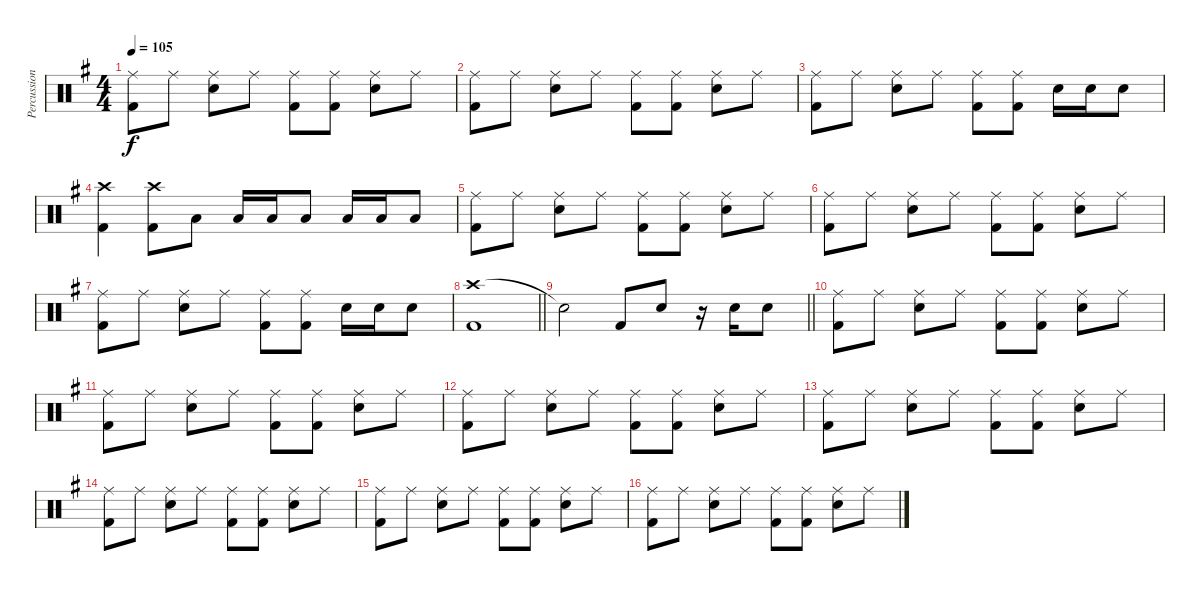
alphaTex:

\track ("Percussion" "Percussion") {instrument percussion}
\staff {score}
\articulation defaults
\ts (4 4)
\tempo 105
\clef neutral
\ks g
("Ride (middle)" "Kick (hit) 2").8{dy f} "Ride (middle)".8 ("Ride (middle)" "Snare (hit) 2").8 "Ride (middle)".8 ("Ride (middle)" "Kick (hit) 2").8 ("Ride (middle)" "Kick (hit) 2").8 ("Ride (middle)" "Snare (hit) 2").8 "Ride (middle)".8 |
("Ride (middle)" "Kick (hit) 2").8 "Ride (middle)".8 ("Ride (middle)" "Snare (hit) 2").8 "Ride (middle)".8 ("Ride (middle)" "Kick (hit) 2").8 ("Ride (middle)" "Kick (hit) 2").8 ("Ride (middle)" "Snare (hit) 2").8 "Ride (middle)".8 |
("Ride (middle)" "Kick (hit) 2").8 "Ride (middle)".8 ("Ride (middle)" "Snare (hit) 2").8 "Ride (middle)".8 ("Ride (middle)" "Kick (hit) 2").8 ("Ride (middle)" "Kick (hit) 2").8 "Snare (hit) 2".16 "Snare (hit) 2".16 "Snare (hit) 2".8 |
("Crash high (hit)" "Kick (hit) 2").4 ("Crash high (hit)" "Kick (hit) 2").8 "Low Floor Tom (hit)".8 "Low Floor Tom (hit)".16 "Low Floor Tom (hit)".16 "Low Floor Tom (hit)".8 "Low Floor Tom (hit)".16 "Low Floor Tom (hit)".16 "Low Floor Tom (hit)".8 |
("Ride (middle)" "Kick (hit) 2").8 "Ride (middle)".8 ("Ride (middle)" "Snare (hit) 2").8 "Ride (middle)".8 ("Ride (middle)" "Kick (hit) 2").8 ("Ride (middle)" "Kick (hit) 2").8 ("Ride (middle)" "Snare (hit) 2").8 "Ride (middle)".8 |
("Ride (middle)" "Kick (hit) 2").8 "Ride (middle)".8 ("Ride (middle)" "Snare (hit) 2").8 "Ride (middle)".8 ("Ride (middle)" "Kick (hit) 2").8 ("Ride (middle)" "Kick (hit) 2").8 ("Ride (middle)" "Snare (hit) 2").8 "Ride (middle)".8 |
("Ride (middle)" "Kick (hit) 2").8 "Ride (middle)".8 ("Ride (middle)" "Snare (hit) 2").8 "Ride (middle)".8 ("Ride (middle)" "Kick (hit) 2").8 ("Ride (middle)" "Kick (hit) 2").8 "Snare (hit) 2".16 "Snare (hit) 2".16 "Snare (hit) 2".8 |
\barLineRight lightlight
("Crash high (hit)" "Kick (hit) 2").1 |
\barLineRight lightlight "Snare (hit)"{t}.2 "Kick (hit) 2".8 "Snare (hit) 2".8
r.16 "Snare (hit) 2".16 "Snare (hit) 2".8 |
("Ride (middle)" "Kick (hit) 2").8 "Ride (middle)".8 ("Ride (middle)" "Snare (hit) 2").8 "Ride (middle)".8 ("Ride (middle)" "Kick (hit) 2").8 ("Ride (middle)" "Kick (hit) 2").8 ("Ride (middle)" "Snare (hit) 2").8 "Ride (middle)".8 |
("Ride (middle)" "Kick (hit) 2").8 "Ride (middle)".8 ("Ride (middle)" "Snare (hit) 2").8 "Ride (middle)".8 ("Ride (middle)" "Kick (hit) 2").8 ("Ride (middle)" "Kick (hit) 2").8 ("Ride (middle)" "Snare (hit) 2").8 "Ride (middle)".8 |
("Ride (middle)" "Kick (hit) 2").8 "Ride (middle)".8 ("Ride (middle)" "Snare (hit) 2").8 "Ride (middle)".8 ("Ride (middle)" "Kick (hit) 2").8 ("Ride (middle)" "Kick (hit) 2").8 ("Ride (middle)" "Snare (hit) 2").8 "Ride (middle)".8 |
("Ride (middle)" "Kick (hit) 2").8 "Ride (middle)".8 ("Ride (middle)" "Snare (hit) 2").8 "Ride (middle)".8 ("Ride (middle)" "Kick (hit) 2").8 ("Ride (middle)" "Kick (hit) 2").8 ("Ride (middle)" "Snare (hit) 2").8 "Ride (middle)".8 |
("Ride (middle)" "Kick (hit) 2").8 "Ride (middle)".8 ("Ride (middle)" "Snare (hit) 2").8 "Ride (middle)".8 ("Ride (middle)" "Kick (hit) 2").8 ("Ride (middle)" "Kick (hit) 2").8 ("Ride (middle)" "Snare (hit) 2").8 "Ride (middle)".8 |
("Ride (middle)" "Kick (hit) 2").8 "Ride (middle)".8 ("Ride (middle)" "Snare (hit) 2").8 "Ride (middle)".8 ("Ride (middle)" "Kick (hit) 2").8 ("Ride (middle)" "Kick (hit) 2").8 ("Ride (middle)" "Snare (hit) 2").8 "Ride (middle)".8 |
("Ride (middle)" "Kick (hit) 2").8 "Ride (middle)".8 ("Ride (middle)" "Snare (hit) 2").8 "Ride (middle)".8 ("Ride (middle)" "Kick (hit) 2").8 ("Ride (middle)" "Kick (hit) 2").8 ("Ride (middle)" "Snare (hit) 2").8 "Ride (middle)".8
